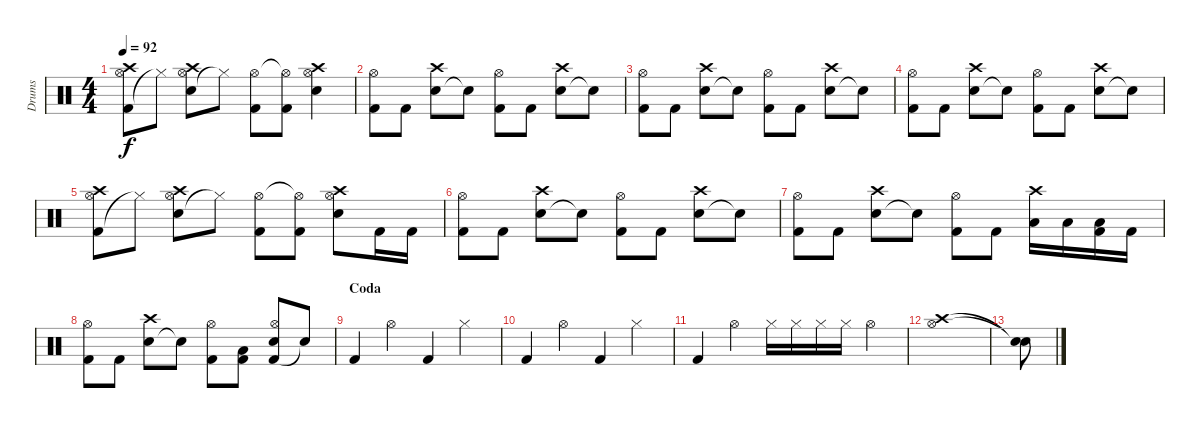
\track ("Drums" "Drums") {instrument percussion}
\staff {score}
\articulation defaults
\ts (4 4)
\tempo 92
\clef neutral
\ks c
("Kick (hit) 2" "Hi-Hat (open)" "Crash high (hit)").8{dy f} "Hi-Hat (closed)"{t}.8 ("Electric Snare (hit)" "Hi-Hat (open)" "Crash high (hit)").8 "Hi-Hat (closed)"{t}.8 ("Kick (hit) 2" "Hi-Hat (open)").8 ("Kick (hit) 2" "Hi-Hat (open)"{t}).8 ("Electric Snare (hit)" "Hi-Hat (open)" "Crash high (hit)").4 |
("Kick (hit) 2" "Hi-Hat (open)").8 "Kick (hit) 2".8 ("Electric Snare (hit)" "Crash high (hit)").8 "Snare (hit)"{t}.8 ("Kick (hit) 2" "Hi-Hat (open)").8 "Kick (hit) 2".8 ("Electric Snare (hit)" "Crash high (hit)").8 "Snare (hit)"{t}.8 |
("Kick (hit) 2" "Hi-Hat (open)").8 "Kick (hit) 2".8 ("Electric Snare (hit)" "Crash high (hit)").8 "Snare (hit)"{t}.8 ("Kick (hit) 2" "Hi-Hat (open)").8 "Kick (hit) 2".8 ("Electric Snare (hit)" "Crash high (hit)").8 "Snare (hit)"{t}.8 |
("Kick (hit) 2" "Hi-Hat (open)").8 "Kick (hit) 2".8 ("Electric Snare (hit)" "Crash high (hit)").8 "Snare (hit)"{t}.8 ("Kick (hit) 2" "Hi-Hat (open)").8 "Kick (hit) 2".8 ("Electric Snare (hit)" "Crash high (hit)").8 "Snare (hit)"{t}.8 |
("Kick (hit) 2" "Hi-Hat (open)" "Crash high (hit)").8 "Hi-Hat (closed)"{t}.8 ("Electric Snare (hit)" "Hi-Hat (open)" "Crash high (hit)").8 "Hi-Hat (closed)"{t}.8 ("Kick (hit) 2" "Hi-Hat (open)").8 ("Kick (hit) 2" "Hi-Hat (open)"{t}).8 ("Electric Snare (hit)" "Hi-Hat (open)" "Crash high (hit)").8 "Kick (hit) 2".16 "Kick (hit) 2".16 |
("Kick (hit) 2" "Hi-Hat (open)").8 "Kick (hit) 2".8 ("Electric Snare (hit)" "Crash high (hit)").8 "Snare (hit)"{t}.8 ("Kick (hit) 2" "Hi-Hat (open)").8 "Kick (hit) 2".8 ("Electric Snare (hit)" "Crash high (hit)").8 "Snare (hit)"{t}.8 |
("Kick (hit) 2" "Hi-Hat (open)").8 "Kick (hit) 2".8 ("Electric Snare (hit)" "Crash high (hit)").8 "Snare (hit)"{t}.8 ("Kick (hit) 2" "Hi-Hat (open)").8 "Kick (hit) 2".8 ("Low Tom (hit)" "Crash high (hit)").16 "Low Tom (hit)".16 ("Kick (hit) 2" "Low Tom (hit)").16 "Kick (hit) 2".16 |
("Kick (hit) 2" "Hi-Hat (open)").8 "Kick (hit) 2".8 ("Electric Snare (hit)" "Crash high (hit)").8 "Snare (hit)"{t}.8 ("Kick (hit) 2" "Hi-Hat (open)").8 ("Kick (hit) 2" "Low Tom (hit)").8 ("Kick (hit) 2" "Electric Snare (hit)" "Hi-Hat (open)").8 "Snare (hit)"{t}.8 |
\section ("" "Coda")
"Kick (hit) 2".4 "Hi-Hat (open)".4 "Kick (hit) 2".4 "Hi-Hat (closed)".4 |
"Kick (hit) 2".4 "Hi-Hat (open)".4 "Kick (hit) 2".4 "Hi-Hat (closed)".4 |
"Kick (hit) 2".4 "Hi-Hat (open)".4 "Hi-Hat (closed)".16 "Hi-Hat (closed)".16 "Hi-Hat (closed)".16 "Hi-Hat (closed)".16 "Hi-Hat (open)".4 |
("Hi-Hat (open)" "Crash high (hit)").1 |
("Snare (hit)"{t} "Snare (hit)"{t}).8
